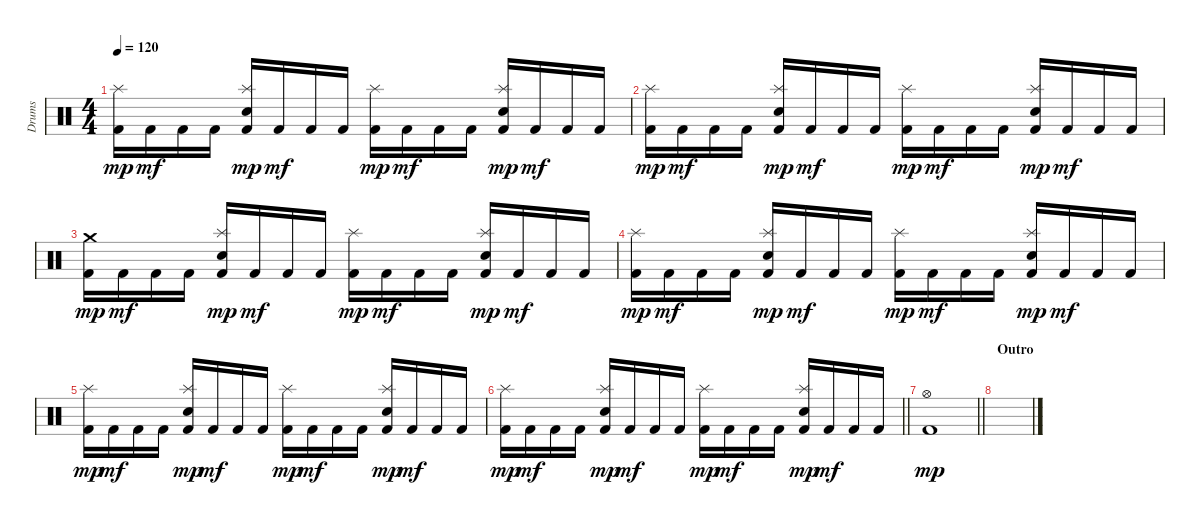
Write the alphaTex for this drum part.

\track ("Drums" "Drums") {instrument percussion}
\staff {score}
\articulation defaults
\ts (4 4)
\tempo 120
\clef neutral
\ks c
("Kick (hit) 2" "Splash (hit)").16{dy mp} "Kick (hit) 2".16{dy mf} "Kick (hit) 2".16 "Kick (hit) 2".16 ("Kick (hit) 2" "Splash (hit)" "Snare (hit) 2").16{dy mp} "Kick (hit) 2".16{dy mf} "Kick (hit) 2".16 "Kick (hit) 2".16 ("Kick (hit) 2" "Splash (hit)").16{dy mp} "Kick (hit) 2".16{dy mf} "Kick (hit) 2".16 "Kick (hit) 2".16 ("Kick (hit) 2" "Splash (hit)" "Snare (hit) 2").16{dy mp} "Kick (hit) 2".16{dy mf} "Kick (hit) 2".16 "Kick (hit) 2".16 |
("Kick (hit) 2" "Splash (hit)").16{dy mp} "Kick (hit) 2".16{dy mf} "Kick (hit) 2".16 "Kick (hit) 2".16 ("Kick (hit) 2" "Splash (hit)" "Snare (hit) 2").16{dy mp} "Kick (hit) 2".16{dy mf} "Kick (hit) 2".16 "Kick (hit) 2".16 ("Kick (hit) 2" "Splash (hit)").16{dy mp} "Kick (hit) 2".16{dy mf} "Kick (hit) 2".16 "Kick (hit) 2".16 ("Kick (hit) 2" "Splash (hit)" "Snare (hit) 2").16{dy mp} "Kick (hit) 2".16{dy mf} "Kick (hit) 2".16 "Kick (hit) 2".16 |
("Kick (hit) 2" "Crash medium (hit)").16{dy mp} "Kick (hit) 2".16{dy mf} "Kick (hit) 2".16 "Kick (hit) 2".16 ("Kick (hit) 2" "Splash (hit)" "Snare (hit) 2").16{dy mp} "Kick (hit) 2".16{dy mf} "Kick (hit) 2".16 "Kick (hit) 2".16 ("Kick (hit) 2" "Splash (hit)").16{dy mp} "Kick (hit) 2".16{dy mf} "Kick (hit) 2".16 "Kick (hit) 2".16 ("Kick (hit) 2" "Splash (hit)" "Snare (hit) 2").16{dy mp} "Kick (hit) 2".16{dy mf} "Kick (hit) 2".16 "Kick (hit) 2".16 |
("Kick (hit) 2" "Splash (hit)").16{dy mp} "Kick (hit) 2".16{dy mf} "Kick (hit) 2".16 "Kick (hit) 2".16 ("Kick (hit) 2" "Splash (hit)" "Snare (hit) 2").16{dy mp} "Kick (hit) 2".16{dy mf} "Kick (hit) 2".16 "Kick (hit) 2".16 ("Kick (hit) 2" "Splash (hit)").16{dy mp} "Kick (hit) 2".16{dy mf} "Kick (hit) 2".16 "Kick (hit) 2".16 ("Kick (hit) 2" "Splash (hit)" "Snare (hit) 2").16{dy mp} "Kick (hit) 2".16{dy mf} "Kick (hit) 2".16 "Kick (hit) 2".16 |
("Kick (hit) 2" "Splash (hit)").16{dy mp} "Kick (hit) 2".16{dy mf} "Kick (hit) 2".16 "Kick (hit) 2".16 ("Kick (hit) 2" "Splash (hit)" "Snare (hit) 2").16{dy mp} "Kick (hit) 2".16{dy mf} "Kick (hit) 2".16 "Kick (hit) 2".16 ("Kick (hit) 2" "Splash (hit)").16{dy mp} "Kick (hit) 2".16{dy mf} "Kick (hit) 2".16 "Kick (hit) 2".16 ("Kick (hit) 2" "Splash (hit)" "Snare (hit) 2").16{dy mp} "Kick (hit) 2".16{dy mf} "Kick (hit) 2".16 "Kick (hit) 2".16 |
\barLineRight lightlight
("Kick (hit) 2" "Splash (hit)").16{dy mp} "Kick (hit) 2".16{dy mf} "Kick (hit) 2".16 "Kick (hit) 2".16 ("Kick (hit) 2" "Splash (hit)" "Snare (hit) 2").16{dy mp} "Kick (hit) 2".16{dy mf} "Kick (hit) 2".16 "Kick (hit) 2".16 ("Kick (hit) 2" "Splash (hit)").16{dy mp} "Kick (hit) 2".16{dy mf} "Kick (hit) 2".16 "Kick (hit) 2".16 ("Kick (hit) 2" "Splash (hit)" "Snare (hit) 2").16{dy mp} "Kick (hit) 2".16{dy mf} "Kick (hit) 2".16 "Kick (hit) 2".16 |
\barLineRight lightlight
("Kick (hit) 2" "Hi-Hat (open)").1{dy mp} |
\section ("" "Outro")
